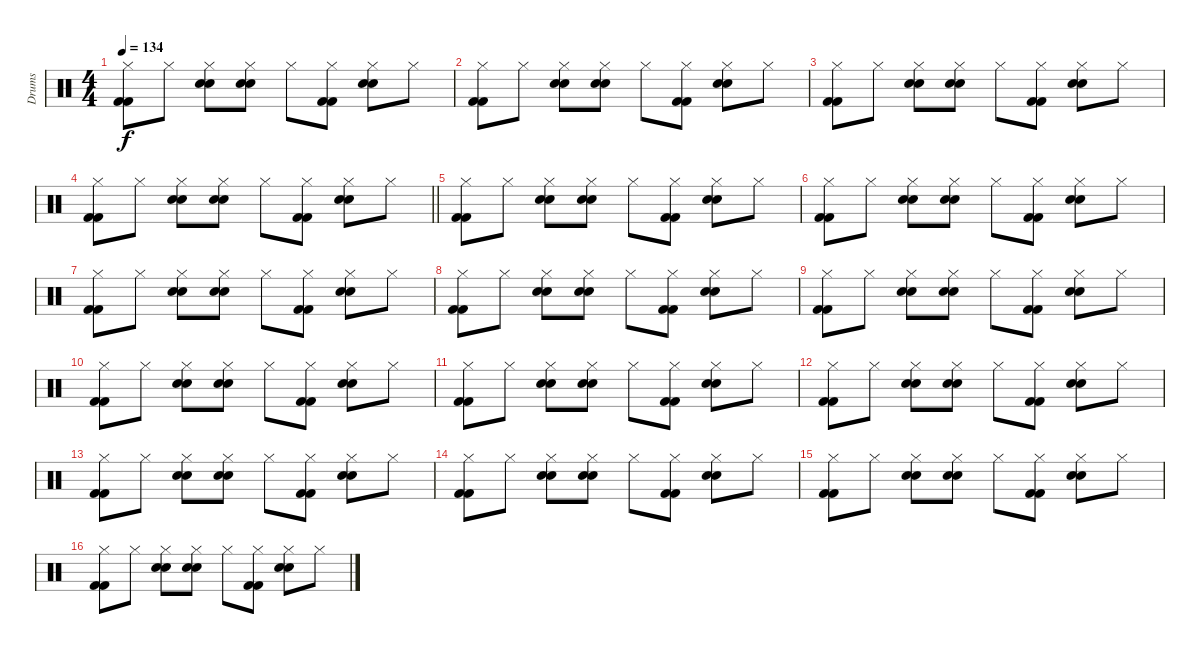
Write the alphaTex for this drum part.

\track ("Drums" "Drums") {instrument percussion}
\staff {score}
\articulation defaults
\ts (4 4)
\tempo 134
\clef neutral
\ks c
("Kick (hit) 2" "Kick (hit) 2" "Hi-Hat (closed)").8{dy f} "Hi-Hat (closed)".8 ("Snare (hit) 2" "Hi-Hat (closed)" "Electric Snare (hit)").8 ("Snare (hit) 2" "Hi-Hat (closed)" "Electric Snare (hit)").8 "Hi-Hat (closed)".8 ("Kick (hit) 2" "Kick (hit) 2" "Hi-Hat (closed)").8 ("Snare (hit) 2" "Hi-Hat (closed)" "Electric Snare (hit)").8 "Hi-Hat (closed)".8 |
("Kick (hit) 2" "Kick (hit) 2" "Hi-Hat (closed)").8 "Hi-Hat (closed)".8 ("Snare (hit) 2" "Hi-Hat (closed)" "Electric Snare (hit)").8 ("Snare (hit) 2" "Hi-Hat (closed)" "Electric Snare (hit)").8 "Hi-Hat (closed)".8 ("Kick (hit) 2" "Kick (hit) 2" "Hi-Hat (closed)").8 ("Snare (hit) 2" "Hi-Hat (closed)" "Electric Snare (hit)").8 "Hi-Hat (closed)".8 |
("Kick (hit) 2" "Kick (hit) 2" "Hi-Hat (closed)").8 "Hi-Hat (closed)".8 ("Snare (hit) 2" "Hi-Hat (closed)" "Electric Snare (hit)").8 ("Snare (hit) 2" "Hi-Hat (closed)" "Electric Snare (hit)").8 "Hi-Hat (closed)".8 ("Kick (hit) 2" "Kick (hit) 2" "Hi-Hat (closed)").8 ("Snare (hit) 2" "Hi-Hat (closed)" "Electric Snare (hit)").8 "Hi-Hat (closed)".8 |
\barLineRight lightlight
("Kick (hit) 2" "Kick (hit) 2" "Hi-Hat (closed)").8 "Hi-Hat (closed)".8 ("Snare (hit) 2" "Hi-Hat (closed)" "Electric Snare (hit)").8 ("Snare (hit) 2" "Hi-Hat (closed)" "Electric Snare (hit)").8 "Hi-Hat (closed)".8 ("Kick (hit) 2" "Kick (hit) 2" "Hi-Hat (closed)").8 ("Snare (hit) 2" "Hi-Hat (closed)" "Electric Snare (hit)").8 "Hi-Hat (closed)".8 |
("Kick (hit) 2" "Kick (hit) 2" "Hi-Hat (closed)").8 "Hi-Hat (closed)".8 ("Snare (hit) 2" "Hi-Hat (closed)" "Electric Snare (hit)").8 ("Snare (hit) 2" "Hi-Hat (closed)" "Electric Snare (hit)").8 "Hi-Hat (closed)".8 ("Kick (hit) 2" "Kick (hit) 2" "Hi-Hat (closed)").8 ("Snare (hit) 2" "Hi-Hat (closed)" "Electric Snare (hit)").8 "Hi-Hat (closed)".8 |
("Kick (hit) 2" "Kick (hit) 2" "Hi-Hat (closed)").8 "Hi-Hat (closed)".8 ("Snare (hit) 2" "Hi-Hat (closed)" "Electric Snare (hit)").8 ("Snare (hit) 2" "Hi-Hat (closed)" "Electric Snare (hit)").8 "Hi-Hat (closed)".8 ("Kick (hit) 2" "Kick (hit) 2" "Hi-Hat (closed)").8 ("Snare (hit) 2" "Hi-Hat (closed)" "Electric Snare (hit)").8 "Hi-Hat (closed)".8 |
("Kick (hit) 2" "Kick (hit) 2" "Hi-Hat (closed)").8 "Hi-Hat (closed)".8 ("Snare (hit) 2" "Hi-Hat (closed)" "Electric Snare (hit)").8 ("Snare (hit) 2" "Hi-Hat (closed)" "Electric Snare (hit)").8 "Hi-Hat (closed)".8 ("Kick (hit) 2" "Kick (hit) 2" "Hi-Hat (closed)").8 ("Snare (hit) 2" "Hi-Hat (closed)" "Electric Snare (hit)").8 "Hi-Hat (closed)".8 |
("Kick (hit) 2" "Kick (hit) 2" "Hi-Hat (closed)").8 "Hi-Hat (closed)".8 ("Snare (hit) 2" "Hi-Hat (closed)" "Electric Snare (hit)").8 ("Snare (hit) 2" "Hi-Hat (closed)" "Electric Snare (hit)").8 "Hi-Hat (closed)".8 ("Kick (hit) 2" "Kick (hit) 2" "Hi-Hat (closed)").8 ("Snare (hit) 2" "Hi-Hat (closed)" "Electric Snare (hit)").8 "Hi-Hat (closed)".8 |
("Kick (hit) 2" "Kick (hit) 2" "Hi-Hat (closed)").8 "Hi-Hat (closed)".8 ("Snare (hit) 2" "Hi-Hat (closed)" "Electric Snare (hit)").8 ("Snare (hit) 2" "Hi-Hat (closed)" "Electric Snare (hit)").8 "Hi-Hat (closed)".8 ("Kick (hit) 2" "Kick (hit) 2" "Hi-Hat (closed)").8 ("Snare (hit) 2" "Hi-Hat (closed)" "Electric Snare (hit)").8 "Hi-Hat (closed)".8 |
("Kick (hit) 2" "Kick (hit) 2" "Hi-Hat (closed)").8 "Hi-Hat (closed)".8 ("Snare (hit) 2" "Hi-Hat (closed)" "Electric Snare (hit)").8 ("Snare (hit) 2" "Hi-Hat (closed)" "Electric Snare (hit)").8 "Hi-Hat (closed)".8 ("Kick (hit) 2" "Kick (hit) 2" "Hi-Hat (closed)").8 ("Snare (hit) 2" "Hi-Hat (closed)" "Electric Snare (hit)").8 "Hi-Hat (closed)".8 |
("Kick (hit) 2" "Kick (hit) 2" "Hi-Hat (closed)").8 "Hi-Hat (closed)".8 ("Snare (hit) 2" "Hi-Hat (closed)" "Electric Snare (hit)").8 ("Snare (hit) 2" "Hi-Hat (closed)" "Electric Snare (hit)").8 "Hi-Hat (closed)".8 ("Kick (hit) 2" "Kick (hit) 2" "Hi-Hat (closed)").8 ("Snare (hit) 2" "Hi-Hat (closed)" "Electric Snare (hit)").8 "Hi-Hat (closed)".8 |
("Kick (hit) 2" "Kick (hit) 2" "Hi-Hat (closed)").8 "Hi-Hat (closed)".8 ("Snare (hit) 2" "Hi-Hat (closed)" "Electric Snare (hit)").8 ("Snare (hit) 2" "Hi-Hat (closed)" "Electric Snare (hit)").8 "Hi-Hat (closed)".8 ("Kick (hit) 2" "Kick (hit) 2" "Hi-Hat (closed)").8 ("Snare (hit) 2" "Hi-Hat (closed)" "Electric Snare (hit)").8 "Hi-Hat (closed)".8 |
("Kick (hit) 2" "Kick (hit) 2" "Hi-Hat (closed)").8 "Hi-Hat (closed)".8 ("Snare (hit) 2" "Hi-Hat (closed)" "Electric Snare (hit)").8 ("Snare (hit) 2" "Hi-Hat (closed)" "Electric Snare (hit)").8 "Hi-Hat (closed)".8 ("Kick (hit) 2" "Kick (hit) 2" "Hi-Hat (closed)").8 ("Snare (hit) 2" "Hi-Hat (closed)" "Electric Snare (hit)").8 "Hi-Hat (closed)".8 |
("Kick (hit) 2" "Kick (hit) 2" "Hi-Hat (closed)").8 "Hi-Hat (closed)".8 ("Snare (hit) 2" "Hi-Hat (closed)" "Electric Snare (hit)").8 ("Snare (hit) 2" "Hi-Hat (closed)" "Electric Snare (hit)").8 "Hi-Hat (closed)".8 ("Kick (hit) 2" "Kick (hit) 2" "Hi-Hat (closed)").8 ("Snare (hit) 2" "Hi-Hat (closed)" "Electric Snare (hit)").8 "Hi-Hat (closed)".8 |
("Kick (hit) 2" "Kick (hit) 2" "Hi-Hat (closed)").8 "Hi-Hat (closed)".8 ("Snare (hit) 2" "Hi-Hat (closed)" "Electric Snare (hit)").8 ("Snare (hit) 2" "Hi-Hat (closed)" "Electric Snare (hit)").8 "Hi-Hat (closed)".8 ("Kick (hit) 2" "Kick (hit) 2" "Hi-Hat (closed)").8 ("Snare (hit) 2" "Hi-Hat (closed)" "Electric Snare (hit)").8 "Hi-Hat (closed)".8 |
("Kick (hit) 2" "Kick (hit) 2" "Hi-Hat (closed)").8 "Hi-Hat (closed)".8 ("Snare (hit) 2" "Hi-Hat (closed)" "Electric Snare (hit)").8 ("Snare (hit) 2" "Hi-Hat (closed)" "Electric Snare (hit)").8 "Hi-Hat (closed)".8 ("Kick (hit) 2" "Kick (hit) 2" "Hi-Hat (closed)").8 ("Snare (hit) 2" "Hi-Hat (closed)" "Electric Snare (hit)").8 "Hi-Hat (closed)".8
